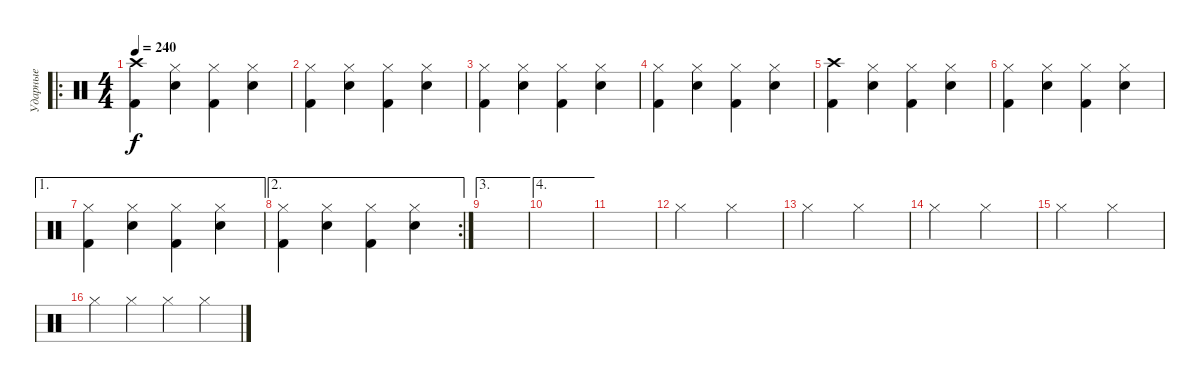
\track ("Ударные" "Ударные") {instrument percussion}
\staff {score}
\articulation defaults
\ro
\ts (4 4)
\tempo 240
\clef neutral
\ks c
("Crash high (hit)" "Kick (hit) 2").4{dy f} ("Hi-Hat (closed)" "Snare (hit) 2").4 ("Hi-Hat (closed)" "Kick (hit) 2").4 ("Hi-Hat (closed)" "Snare (hit) 2").4 |
("Hi-Hat (closed)" "Kick (hit) 2").4 ("Hi-Hat (closed)" "Snare (hit) 2").4 ("Hi-Hat (closed)" "Kick (hit) 2").4 ("Hi-Hat (closed)" "Snare (hit) 2").4 |
("Hi-Hat (closed)" "Kick (hit) 2").4 ("Hi-Hat (closed)" "Snare (hit) 2").4 ("Hi-Hat (closed)" "Kick (hit) 2").4 ("Hi-Hat (closed)" "Snare (hit) 2").4 |
("Hi-Hat (closed)" "Kick (hit) 2").4 ("Hi-Hat (closed)" "Snare (hit) 2").4 ("Hi-Hat (closed)" "Kick (hit) 2").4 ("Hi-Hat (closed)" "Snare (hit) 2").4 |
("Crash high (hit)" "Kick (hit) 2").4 ("Hi-Hat (closed)" "Snare (hit) 2").4 ("Hi-Hat (closed)" "Kick (hit) 2").4 ("Hi-Hat (closed)" "Snare (hit) 2").4 |
("Hi-Hat (closed)" "Kick (hit) 2").4 ("Hi-Hat (closed)" "Snare (hit) 2").4 ("Hi-Hat (closed)" "Kick (hit) 2").4 ("Hi-Hat (closed)" "Snare (hit) 2").4 |
\ae 1
("Hi-Hat (closed)" "Kick (hit) 2").4 ("Hi-Hat (closed)" "Snare (hit) 2").4 ("Hi-Hat (closed)" "Kick (hit) 2").4 ("Hi-Hat (closed)" "Snare (hit) 2").4 |
\ae 2
\rc 2
("Hi-Hat (closed)" "Kick (hit) 2").4 ("Hi-Hat (closed)" "Snare (hit) 2").4 ("Hi-Hat (closed)" "Kick (hit) 2").4 ("Hi-Hat (closed)" "Snare (hit) 2").4 |
\ae 3
|
\ae 4
|
|
"Hi-Hat (closed)".2 "Hi-Hat (closed)".2 |
"Hi-Hat (closed)".2 "Hi-Hat (closed)".2 |
"Hi-Hat (closed)".2 "Hi-Hat (closed)".2 |
"Hi-Hat (closed)".2 "Hi-Hat (closed)".2 |
"Hi-Hat (closed)".4 "Hi-Hat (closed)".4 "Hi-Hat (closed)".4 "Hi-Hat (closed)".4
